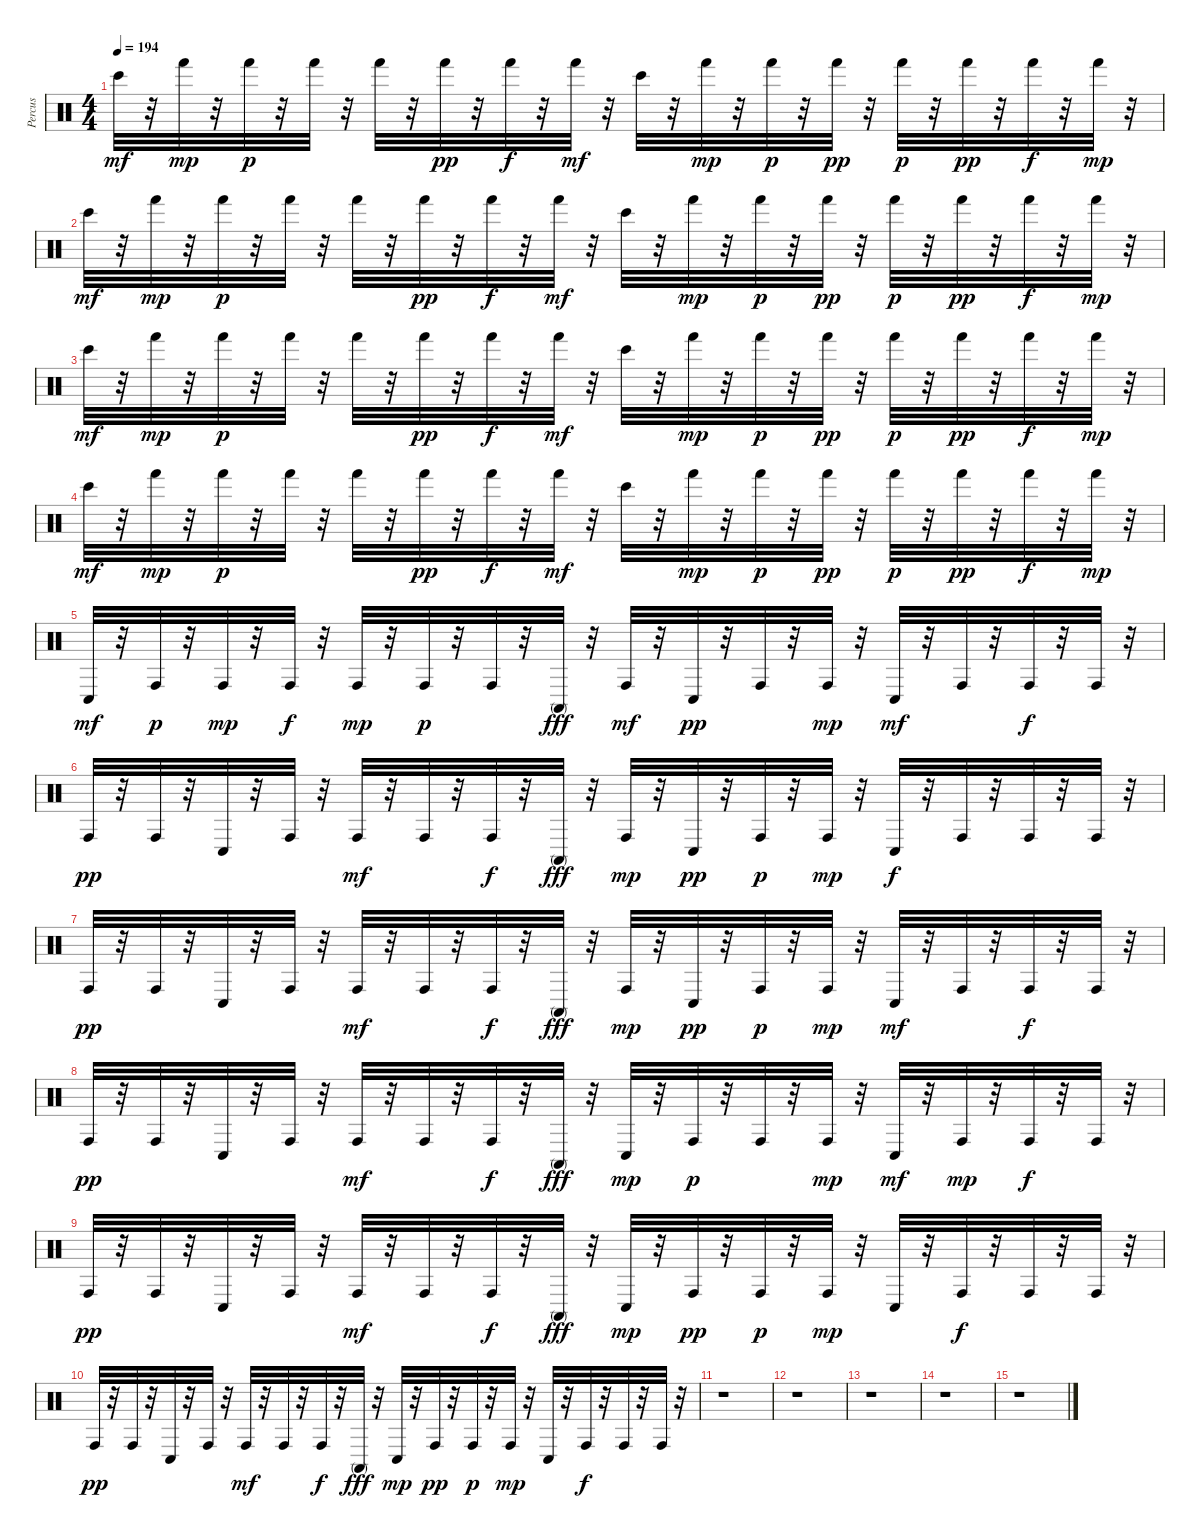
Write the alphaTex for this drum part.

\track ("Percus" "Percus") {instrument percussion}
\staff {score}
\articulation defaults
\ts (4 4)
\tempo 194
\clef neutral
\ks c "Bongo High (hit)".32{dy mf}
r.32 "Hand (hit)".32{dy mp} r.32 "Hand (hit)".32{dy p} r.32 "Hand (hit)".32 r.32 "Hand (hit)".32 r.32 "Hand (hit)".32{dy pp} r.32 "Hand (hit)".32{dy f} r.32 "Hand (hit)".32{dy mf} r.32 "Bongo High (hit)".32 r.32 "Hand (hit)".32{dy mp} r.32 "Hand (hit)".32{dy p} r.32 "Hand (hit)".32{dy pp} r.32 "Hand (hit)".32{dy p} r.32 "Hand (hit)".32{dy pp} r.32 "Hand (hit)".32{dy f} r.32 "Hand (hit)".32{dy mp} r.32 |
"Bongo High (hit)".32{dy mf} r.32 "Hand (hit)".32{dy mp} r.32 "Hand (hit)".32{dy p} r.32 "Hand (hit)".32 r.32 "Hand (hit)".32 r.32 "Hand (hit)".32{dy pp} r.32 "Hand (hit)".32{dy f} r.32 "Hand (hit)".32{dy mf} r.32 "Bongo High (hit)".32 r.32 "Hand (hit)".32{dy mp} r.32 "Hand (hit)".32{dy p} r.32 "Hand (hit)".32{dy pp} r.32 "Hand (hit)".32{dy p} r.32 "Hand (hit)".32{dy pp} r.32 "Hand (hit)".32{dy f} r.32 "Hand (hit)".32{dy mp} r.32 |
"Bongo High (hit)".32{dy mf} r.32 "Hand (hit)".32{dy mp} r.32 "Hand (hit)".32{dy p} r.32 "Hand (hit)".32 r.32 "Hand (hit)".32 r.32 "Hand (hit)".32{dy pp} r.32 "Hand (hit)".32{dy f} r.32 "Hand (hit)".32{dy mf} r.32 "Bongo High (hit)".32 r.32 "Hand (hit)".32{dy mp} r.32 "Hand (hit)".32{dy p} r.32 "Hand (hit)".32{dy pp} r.32 "Hand (hit)".32{dy p} r.32 "Hand (hit)".32{dy pp} r.32 "Hand (hit)".32{dy f} r.32 "Hand (hit)".32{dy mp} r.32 |
"Bongo High (hit)".32{dy mf} r.32 "Hand (hit)".32{dy mp} r.32 "Hand (hit)".32{dy p} r.32 "Hand (hit)".32 r.32 "Hand (hit)".32 r.32 "Hand (hit)".32{dy pp} r.32 "Hand (hit)".32{dy f} r.32 "Hand (hit)".32{dy mf} r.32 "Bongo High (hit)".32 r.32 "Hand (hit)".32{dy mp} r.32 "Hand (hit)".32{dy p} r.32 "Hand (hit)".32{dy pp} r.32 "Hand (hit)".32{dy p} r.32 "Hand (hit)".32{dy pp} r.32 "Hand (hit)".32{dy f} r.32 "Hand (hit)".32{dy mp} r.32 |
"Conga low (hit)".32{dy mf} r.32 "Conga high (hit)".32{dy p} r.32 "Conga high (hit)".32{dy mp} r.32 "Conga high (hit)".32{dy f} r.32 "Conga high (hit)".32{dy mp} r.32 "Conga high (hit)".32{dy p} r.32 "Conga high (hit)".32 r.32 "Conga high (mute)".32{dy fff} r.32 "Conga high (hit)".32{dy mf} r.32 "Conga low (hit)".32{dy pp} r.32 "Conga high (hit)".32 r.32 "Conga high (hit)".32{dy mp} r.32 "Conga low (hit)".32{dy mf} r.32 "Conga high (hit)".32 r.32 "Conga high (hit)".32{dy f} r.32 "Conga high (hit)".32 r.32 |
"Conga high (hit)".32{dy pp} r.32 "Conga high (hit)".32 r.32 "Conga low (hit)".32 r.32 "Conga high (hit)".32 r.32 "Conga high (hit)".32{dy mf} r.32 "Conga high (hit)".32 r.32 "Conga high (hit)".32{dy f} r.32 "Conga high (mute)".32{dy fff} r.32 "Conga high (hit)".32{dy mp} r.32 "Conga low (hit)".32{dy pp} r.32 "Conga high (hit)".32{dy p} r.32 "Conga high (hit)".32{dy mp} r.32 "Conga low (hit)".32{dy f} r.32 "Conga high (hit)".32 r.32 "Conga high (hit)".32 r.32 "Conga high (hit)".32 r.32 |
"Conga high (hit)".32{dy pp} r.32 "Conga high (hit)".32 r.32 "Conga low (hit)".32 r.32 "Conga high (hit)".32 r.32 "Conga high (hit)".32{dy mf} r.32 "Conga high (hit)".32 r.32 "Conga high (hit)".32{dy f} r.32 "Conga high (mute)".32{dy fff} r.32 "Conga high (hit)".32{dy mp} r.32 "Conga low (hit)".32{dy pp} r.32 "Conga high (hit)".32{dy p} r.32 "Conga high (hit)".32{dy mp} r.32 "Conga low (hit)".32{dy mf} r.32 "Conga high (hit)".32 r.32 "Conga high (hit)".32{dy f} r.32 "Conga high (hit)".32 r.32 |
"Conga high (hit)".32{dy pp} r.32 "Conga high (hit)".32 r.32 "Conga low (hit)".32 r.32 "Conga high (hit)".32 r.32 "Conga high (hit)".32{dy mf} r.32 "Conga high (hit)".32 r.32 "Conga high (hit)".32{dy f} r.32 "Conga high (mute)".32{dy fff} r.32 "Conga low (hit)".32{dy mp} r.32 "Conga high (hit)".32{dy p} r.32 "Conga high (hit)".32 r.32 "Conga high (hit)".32{dy mp} r.32 "Conga low (hit)".32{dy mf} r.32 "Conga high (hit)".32{dy mp} r.32 "Conga high (hit)".32{dy f} r.32 "Conga high (hit)".32 r.32 |
"Conga high (hit)".32{dy pp} r.32 "Conga high (hit)".32 r.32 "Conga low (hit)".32 r.32 "Conga high (hit)".32 r.32 "Conga high (hit)".32{dy mf} r.32 "Conga high (hit)".32 r.32 "Conga high (hit)".32{dy f} r.32 "Conga high (mute)".32{dy fff} r.32 "Conga low (hit)".32{dy mp} r.32 "Conga high (hit)".32{dy pp} r.32 "Conga high (hit)".32{dy p} r.32 "Conga high (hit)".32{dy mp} r.32 "Conga low (hit)".32 r.32 "Conga high (hit)".32{dy f} r.32 "Conga high (hit)".32 r.32 "Conga high (hit)".32 r.32 |
"Conga high (hit)".32{dy pp} r.32 "Conga high (hit)".32 r.32 "Conga low (hit)".32 r.32 "Conga high (hit)".32 r.32 "Conga high (hit)".32{dy mf} r.32 "Conga high (hit)".32 r.32 "Conga high (hit)".32{dy f} r.32 "Conga high (mute)".32{dy fff} r.32 "Conga low (hit)".32{dy mp} r.32 "Conga high (hit)".32{dy pp} r.32 "Conga high (hit)".32{dy p} r.32 "Conga high (hit)".32{dy mp} r.32 "Conga low (hit)".32 r.32 "Conga high (hit)".32{dy f} r.32 "Conga high (hit)".32 r.32 "Conga high (hit)".32 r.32 |
r.1 |
r.1 |
r.1 |
r.1 |
r.1
